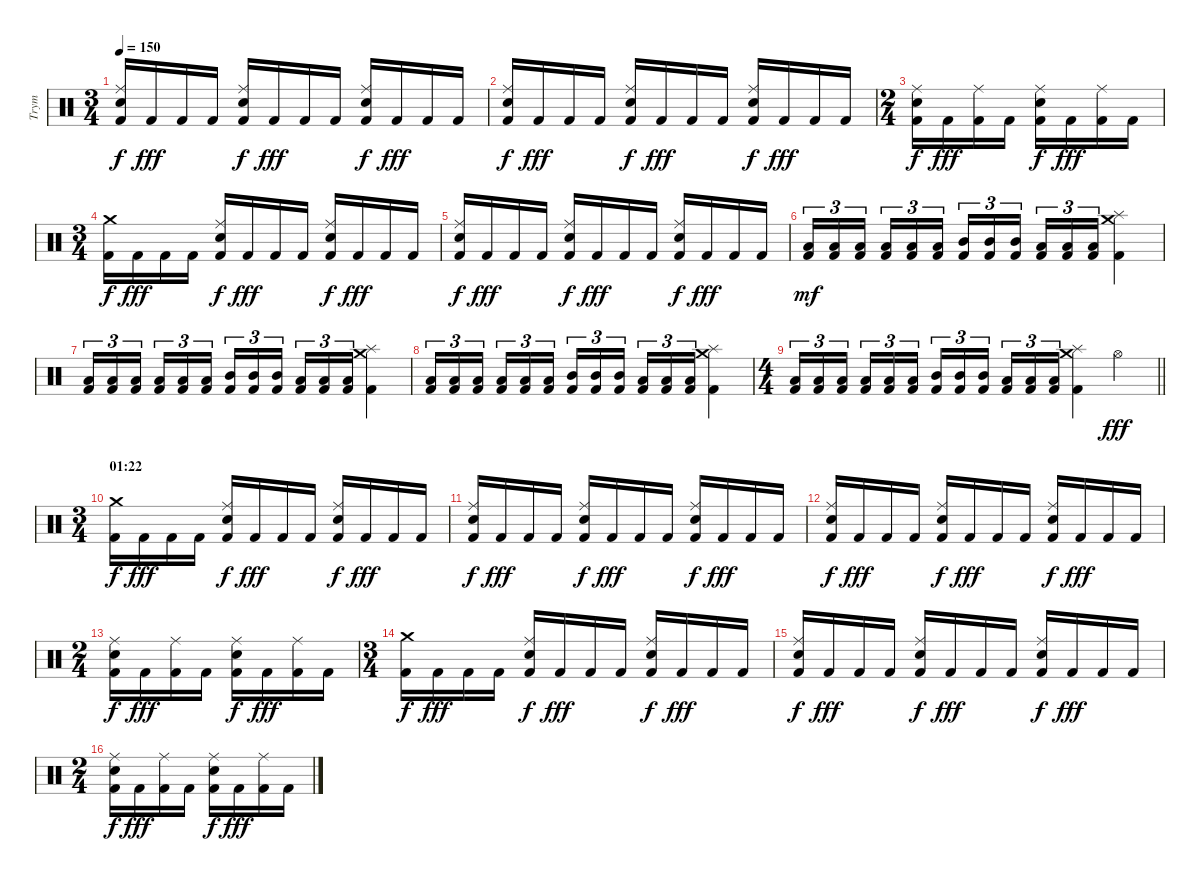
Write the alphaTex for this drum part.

\track ("Trym" "Trym") {instrument percussion}
\staff {score}
\articulation defaults
\ts (3 4)
\tempo 150
\clef neutral
\ks c
("Snare (hit) 2" "Ride (middle)" "Kick (hit) 2").16{dy f} "Kick (hit) 2".16{dy fff} "Kick (hit) 2".16 "Kick (hit) 2".16 ("Snare (hit) 2" "Ride (middle)" "Kick (hit) 2").16{dy f} "Kick (hit) 2".16{dy fff} "Kick (hit) 2".16 "Kick (hit) 2".16 ("Snare (hit) 2" "Ride (middle)" "Kick (hit) 2").16{dy f} "Kick (hit) 2".16{dy fff} "Kick (hit) 2".16 "Kick (hit) 2".16 |
("Snare (hit) 2" "Ride (middle)" "Kick (hit) 2").16{dy f} "Kick (hit) 2".16{dy fff} "Kick (hit) 2".16 "Kick (hit) 2".16 ("Snare (hit) 2" "Ride (middle)" "Kick (hit) 2").16{dy f} "Kick (hit) 2".16{dy fff} "Kick (hit) 2".16 "Kick (hit) 2".16 ("Snare (hit) 2" "Ride (middle)" "Kick (hit) 2").16{dy f} "Kick (hit) 2".16{dy fff} "Kick (hit) 2".16 "Kick (hit) 2".16 |
\ts (2 4)
("Snare (hit) 2" "Ride (middle)" "Kick (hit) 2").16{dy f} "Kick (hit) 2".16{dy fff} ("Ride (middle)" "Kick (hit) 2").16 "Kick (hit) 2".16 ("Snare (hit) 2" "Ride (middle)" "Kick (hit) 2").16{dy f} "Kick (hit) 2".16{dy fff} ("Ride (middle)" "Kick (hit) 2").16 "Kick (hit) 2".16 |
\ts (3 4)
("Crash medium (hit)" "Kick (hit) 2").16{dy f} "Kick (hit) 2".16{dy fff} "Kick (hit) 2".16 "Kick (hit) 2".16 ("Snare (hit) 2" "Ride (middle)" "Kick (hit) 2").16{dy f} "Kick (hit) 2".16{dy fff} "Kick (hit) 2".16 "Kick (hit) 2".16 ("Snare (hit) 2" "Ride (middle)" "Kick (hit) 2").16{dy f} "Kick (hit) 2".16{dy fff} "Kick (hit) 2".16 "Kick (hit) 2".16 |
("Snare (hit) 2" "Ride (middle)" "Kick (hit) 2").16{dy f} "Kick (hit) 2".16{dy fff} "Kick (hit) 2".16 "Kick (hit) 2".16 ("Snare (hit) 2" "Ride (middle)" "Kick (hit) 2").16{dy f} "Kick (hit) 2".16{dy fff} "Kick (hit) 2".16 "Kick (hit) 2".16 ("Snare (hit) 2" "Ride (middle)" "Kick (hit) 2").16{dy f} "Kick (hit) 2".16{dy fff} "Kick (hit) 2".16 "Kick (hit) 2".16 |
("Low Floor Tom (hit)" "Kick (hit) 2").16{tu (3 2) dy mf} ("Low Floor Tom (hit)" "Kick (hit) 2").16{tu (3 2)} ("Low Floor Tom (hit)" "Kick (hit) 2").16{tu (3 2) beam splitsecondary} ("Low Tom (hit)" "Kick (hit) 2").16{tu (3 2)} ("Low Tom (hit)" "Kick (hit) 2").16{tu (3 2)} ("Low Tom (hit)" "Kick (hit) 2").16{tu (3 2)} ("Mid Tom (hit)" "Kick (hit) 2").16{tu (3 2)} ("Mid Tom (hit)" "Kick (hit) 2").16{tu (3 2)} ("Mid Tom (hit)" "Kick (hit) 2").16{tu (3 2) beam splitsecondary} ("Low Tom (hit)" "Kick (hit) 2").16{tu (3 2)} ("Low Tom (hit)" "Kick (hit) 2").16{tu (3 2)} ("Low Tom (hit)" "Kick (hit) 2").16{tu (3 2)} ("Crash medium (hit)" "Splash (hit)" "Kick (hit) 2").4 |
("Low Floor Tom (hit)" "Kick (hit) 2").16{tu (3 2)} ("Low Floor Tom (hit)" "Kick (hit) 2").16{tu (3 2)} ("Low Floor Tom (hit)" "Kick (hit) 2").16{tu (3 2) beam splitsecondary} ("Low Tom (hit)" "Kick (hit) 2").16{tu (3 2)} ("Low Tom (hit)" "Kick (hit) 2").16{tu (3 2)} ("Low Tom (hit)" "Kick (hit) 2").16{tu (3 2)} ("Mid Tom (hit)" "Kick (hit) 2").16{tu (3 2)} ("Mid Tom (hit)" "Kick (hit) 2").16{tu (3 2)} ("Mid Tom (hit)" "Kick (hit) 2").16{tu (3 2) beam splitsecondary} ("Low Tom (hit)" "Kick (hit) 2").16{tu (3 2)} ("Low Tom (hit)" "Kick (hit) 2").16{tu (3 2)} ("Low Tom (hit)" "Kick (hit) 2").16{tu (3 2)} ("Crash medium (hit)" "Splash (hit)" "Kick (hit) 2").4 |
("Low Floor Tom (hit)" "Kick (hit) 2").16{tu (3 2)} ("Low Floor Tom (hit)" "Kick (hit) 2").16{tu (3 2)} ("Low Floor Tom (hit)" "Kick (hit) 2").16{tu (3 2) beam splitsecondary} ("Low Tom (hit)" "Kick (hit) 2").16{tu (3 2)} ("Low Tom (hit)" "Kick (hit) 2").16{tu (3 2)} ("Low Tom (hit)" "Kick (hit) 2").16{tu (3 2)} ("Mid Tom (hit)" "Kick (hit) 2").16{tu (3 2)} ("Mid Tom (hit)" "Kick (hit) 2").16{tu (3 2)} ("Mid Tom (hit)" "Kick (hit) 2").16{tu (3 2) beam splitsecondary} ("Low Tom (hit)" "Kick (hit) 2").16{tu (3 2)} ("Low Tom (hit)" "Kick (hit) 2").16{tu (3 2)} ("Low Tom (hit)" "Kick (hit) 2").16{tu (3 2)} ("Crash medium (hit)" "Splash (hit)" "Kick (hit) 2").4 |
\ts (4 4)
\barLineRight lightlight
("Low Floor Tom (hit)" "Kick (hit) 2").16{tu (3 2)} ("Low Floor Tom (hit)" "Kick (hit) 2").16{tu (3 2)} ("Low Floor Tom (hit)" "Kick (hit) 2").16{tu (3 2) beam splitsecondary} ("Low Tom (hit)" "Kick (hit) 2").16{tu (3 2)} ("Low Tom (hit)" "Kick (hit) 2").16{tu (3 2)} ("Low Tom (hit)" "Kick (hit) 2").16{tu (3 2)} ("Mid Tom (hit)" "Kick (hit) 2").16{tu (3 2)} ("Mid Tom (hit)" "Kick (hit) 2").16{tu (3 2)} ("Mid Tom (hit)" "Kick (hit) 2").16{tu (3 2) beam splitsecondary} ("Low Tom (hit)" "Kick (hit) 2").16{tu (3 2)} ("Low Tom (hit)" "Kick (hit) 2").16{tu (3 2)} ("Low Tom (hit)" "Kick (hit) 2").16{tu (3 2)} ("Crash medium (hit)" "Splash (hit)" "Kick (hit) 2").4 "Hi-Hat (open)".4{dy fff} |
\ts (3 4)
\section ("" "01:22")
("Crash medium (hit)" "Kick (hit) 2").16{dy f} "Kick (hit) 2".16{dy fff} "Kick (hit) 2".16 "Kick (hit) 2".16 ("Snare (hit) 2" "Ride (middle)" "Kick (hit) 2").16{dy f} "Kick (hit) 2".16{dy fff} "Kick (hit) 2".16 "Kick (hit) 2".16 ("Snare (hit) 2" "Ride (middle)" "Kick (hit) 2").16{dy f} "Kick (hit) 2".16{dy fff} "Kick (hit) 2".16 "Kick (hit) 2".16 |
("Snare (hit) 2" "Ride (middle)" "Kick (hit) 2").16{dy f} "Kick (hit) 2".16{dy fff} "Kick (hit) 2".16 "Kick (hit) 2".16 ("Snare (hit) 2" "Ride (middle)" "Kick (hit) 2").16{dy f} "Kick (hit) 2".16{dy fff} "Kick (hit) 2".16 "Kick (hit) 2".16 ("Snare (hit) 2" "Ride (middle)" "Kick (hit) 2").16{dy f} "Kick (hit) 2".16{dy fff} "Kick (hit) 2".16 "Kick (hit) 2".16 |
("Snare (hit) 2" "Ride (middle)" "Kick (hit) 2").16{dy f} "Kick (hit) 2".16{dy fff} "Kick (hit) 2".16 "Kick (hit) 2".16 ("Snare (hit) 2" "Ride (middle)" "Kick (hit) 2").16{dy f} "Kick (hit) 2".16{dy fff} "Kick (hit) 2".16 "Kick (hit) 2".16 ("Snare (hit) 2" "Ride (middle)" "Kick (hit) 2").16{dy f} "Kick (hit) 2".16{dy fff} "Kick (hit) 2".16 "Kick (hit) 2".16 |
\ts (2 4)
("Snare (hit) 2" "Ride (middle)" "Kick (hit) 2").16{dy f} "Kick (hit) 2".16{dy fff} ("Ride (middle)" "Kick (hit) 2").16 "Kick (hit) 2".16 ("Snare (hit) 2" "Ride (middle)" "Kick (hit) 2").16{dy f} "Kick (hit) 2".16{dy fff} ("Ride (middle)" "Kick (hit) 2").16 "Kick (hit) 2".16 |
\ts (3 4)
("Crash medium (hit)" "Kick (hit) 2").16{dy f} "Kick (hit) 2".16{dy fff} "Kick (hit) 2".16 "Kick (hit) 2".16 ("Snare (hit) 2" "Ride (middle)" "Kick (hit) 2").16{dy f} "Kick (hit) 2".16{dy fff} "Kick (hit) 2".16 "Kick (hit) 2".16 ("Snare (hit) 2" "Ride (middle)" "Kick (hit) 2").16{dy f} "Kick (hit) 2".16{dy fff} "Kick (hit) 2".16 "Kick (hit) 2".16 |
("Snare (hit) 2" "Ride (middle)" "Kick (hit) 2").16{dy f} "Kick (hit) 2".16{dy fff} "Kick (hit) 2".16 "Kick (hit) 2".16 ("Snare (hit) 2" "Ride (middle)" "Kick (hit) 2").16{dy f} "Kick (hit) 2".16{dy fff} "Kick (hit) 2".16 "Kick (hit) 2".16 ("Snare (hit) 2" "Ride (middle)" "Kick (hit) 2").16{dy f} "Kick (hit) 2".16{dy fff} "Kick (hit) 2".16 "Kick (hit) 2".16 |
\ts (2 4)
("Snare (hit) 2" "Ride (middle)" "Kick (hit) 2").16{dy f} "Kick (hit) 2".16{dy fff} ("Ride (middle)" "Kick (hit) 2").16 "Kick (hit) 2".16 ("Snare (hit) 2" "Ride (middle)" "Kick (hit) 2").16{dy f} "Kick (hit) 2".16{dy fff} ("Ride (middle)" "Kick (hit) 2").16 "Kick (hit) 2".16
